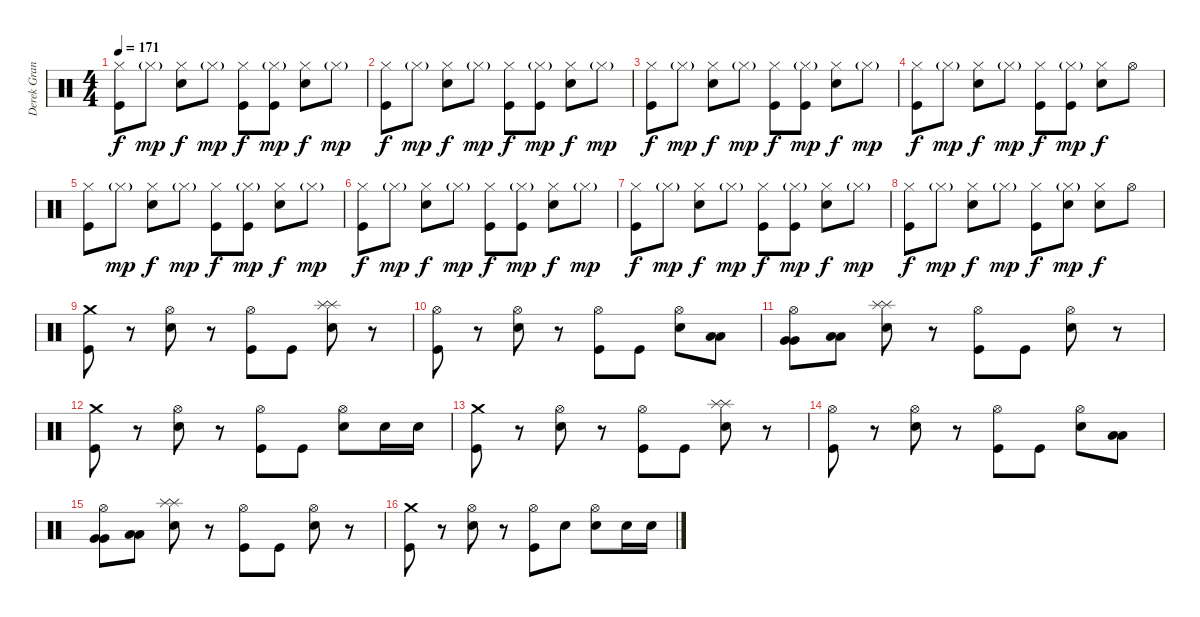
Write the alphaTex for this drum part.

\track ("Derek Grant" "Derek Gran") {instrument percussion}
\staff {score}
\articulation defaults
\ts (4 4)
\tempo 171
\clef neutral
\ks c
("Hi-Hat (closed)" "Kick (hit)").8{dy f} "Hi-Hat (closed)"{g}.8{dy mp} ("Hi-Hat (closed)" "Electric Snare (hit)").8{dy f} "Hi-Hat (closed)"{g}.8{dy mp} ("Hi-Hat (closed)" "Kick (hit)").8{dy f} ("Hi-Hat (closed)"{g} "Kick (hit)").8{dy mp} ("Hi-Hat (closed)" "Electric Snare (hit)").8{dy f} "Hi-Hat (closed)"{g}.8{dy mp} |
("Hi-Hat (closed)" "Kick (hit)").8{dy f} "Hi-Hat (closed)"{g}.8{dy mp} ("Hi-Hat (closed)" "Electric Snare (hit)").8{dy f} "Hi-Hat (closed)"{g}.8{dy mp} ("Hi-Hat (closed)" "Kick (hit)").8{dy f} ("Hi-Hat (closed)"{g} "Kick (hit)").8{dy mp} ("Hi-Hat (closed)" "Electric Snare (hit)").8{dy f} "Hi-Hat (closed)"{g}.8{dy mp} |
("Hi-Hat (closed)" "Kick (hit)").8{dy f} "Hi-Hat (closed)"{g}.8{dy mp} ("Hi-Hat (closed)" "Electric Snare (hit)").8{dy f} "Hi-Hat (closed)"{g}.8{dy mp} ("Hi-Hat (closed)" "Kick (hit)").8{dy f} ("Hi-Hat (closed)"{g} "Kick (hit)").8{dy mp} ("Hi-Hat (closed)" "Electric Snare (hit)").8{dy f} "Hi-Hat (closed)"{g}.8{dy mp} |
("Hi-Hat (closed)" "Kick (hit)").8{dy f} "Hi-Hat (closed)"{g}.8{dy mp} ("Hi-Hat (closed)" "Electric Snare (hit)").8{dy f} "Hi-Hat (closed)"{g}.8{dy mp} ("Hi-Hat (closed)" "Kick (hit)").8{dy f} ("Hi-Hat (closed)"{g} "Kick (hit)").8{dy mp} ("Hi-Hat (closed)" "Electric Snare (hit)").8{dy f} "Hi-Hat (open)".8 |
("Hi-Hat (closed)" "Kick (hit)").8 "Hi-Hat (closed)"{g}.8{dy mp} ("Hi-Hat (closed)" "Electric Snare (hit)").8{dy f} "Hi-Hat (closed)"{g}.8{dy mp} ("Hi-Hat (closed)" "Kick (hit)").8{dy f} ("Hi-Hat (closed)"{g} "Kick (hit)").8{dy mp} ("Hi-Hat (closed)" "Electric Snare (hit)").8{dy f} "Hi-Hat (closed)"{g}.8{dy mp} |
("Hi-Hat (closed)" "Kick (hit)").8{dy f} "Hi-Hat (closed)"{g}.8{dy mp} ("Hi-Hat (closed)" "Electric Snare (hit)").8{dy f} "Hi-Hat (closed)"{g}.8{dy mp} ("Hi-Hat (closed)" "Kick (hit)").8{dy f} ("Hi-Hat (closed)"{g} "Kick (hit)").8{dy mp} ("Hi-Hat (closed)" "Electric Snare (hit)").8{dy f} "Hi-Hat (closed)"{g}.8{dy mp} |
("Hi-Hat (closed)" "Kick (hit)").8{dy f} "Hi-Hat (closed)"{g}.8{dy mp} ("Hi-Hat (closed)" "Electric Snare (hit)").8{dy f} "Hi-Hat (closed)"{g}.8{dy mp} ("Hi-Hat (closed)" "Kick (hit)").8{dy f} ("Hi-Hat (closed)"{g} "Kick (hit)").8{dy mp} ("Hi-Hat (closed)" "Electric Snare (hit)").8{dy f} "Hi-Hat (closed)"{g}.8{dy mp} |
("Hi-Hat (closed)" "Kick (hit)").8{dy f} "Hi-Hat (closed)"{g}.8{dy mp} ("Hi-Hat (closed)" "Electric Snare (hit)").8{dy f} "Hi-Hat (closed)"{g}.8{dy mp} ("Hi-Hat (closed)" "Kick (hit)").8{dy f} ("Hi-Hat (closed)"{g} "Electric Snare (hit)").8{dy mp} ("Hi-Hat (closed)" "Electric Snare (hit)").8{dy f} "Hi-Hat (open)".8 |
("Crash medium (hit)" "Kick (hit)").8 r.8 ("Hi-Hat (open)" "Electric Snare (hit)").8 r.8 ("Hi-Hat (open)" "Kick (hit)").8 "Kick (hit)".8 ("Splash (hit)" "Splash (hit)" "Electric Snare (hit)").8 r.8 |
("Hi-Hat (open)" "Kick (hit)").8 r.8 ("Hi-Hat (open)" "Electric Snare (hit)").8 r.8 ("Hi-Hat (open)" "Kick (hit)").8 "Kick (hit)".8 ("Hi-Hat (open)" "Electric Snare (hit)").8 ("Low Tom (hit)" "Low Tom (hit)").8 |
("Hi-Hat (open)" "Very Low Tom (hit)" "Very Low Tom (hit)").8 ("Low Floor Tom (hit)" "Low Floor Tom (hit)").8 ("Splash (hit)" "Splash (hit)" "Electric Snare (hit)").8 r.8 ("Hi-Hat (open)" "Kick (hit)").8 "Kick (hit)".8 ("Hi-Hat (open)" "Electric Snare (hit)").8 r.8 |
("Crash medium (hit)" "Kick (hit)").8 r.8 ("Hi-Hat (open)" "Electric Snare (hit)").8 r.8 ("Hi-Hat (open)" "Kick (hit)").8 "Kick (hit)".8 ("Hi-Hat (open)" "Electric Snare (hit)").8 "Electric Snare (hit)".16 "Electric Snare (hit)".16 |
("Crash medium (hit)" "Kick (hit)").8 r.8 ("Hi-Hat (open)" "Electric Snare (hit)").8 r.8 ("Hi-Hat (open)" "Kick (hit)").8 "Kick (hit)".8 ("Splash (hit)" "Splash (hit)" "Electric Snare (hit)").8 r.8 |
("Hi-Hat (open)" "Kick (hit)").8 r.8 ("Hi-Hat (open)" "Electric Snare (hit)").8 r.8 ("Hi-Hat (open)" "Kick (hit)").8 "Kick (hit)".8 ("Hi-Hat (open)" "Electric Snare (hit)").8 ("Low Tom (hit)" "Low Tom (hit)").8 |
("Hi-Hat (open)" "Very Low Tom (hit)" "Very Low Tom (hit)").8 ("Low Floor Tom (hit)" "Low Floor Tom (hit)").8 ("Splash (hit)" "Splash (hit)" "Electric Snare (hit)").8 r.8 ("Hi-Hat (open)" "Kick (hit)").8 "Kick (hit)".8 ("Hi-Hat (open)" "Electric Snare (hit)").8 r.8 |
("Crash medium (hit)" "Kick (hit)").8 r.8 ("Hi-Hat (open)" "Electric Snare (hit)").8 r.8 ("Hi-Hat (open)" "Kick (hit)").8 "Electric Snare (hit)".8 ("Hi-Hat (open)" "Electric Snare (hit)").8 "Electric Snare (hit)".16 "Electric Snare (hit)".16
